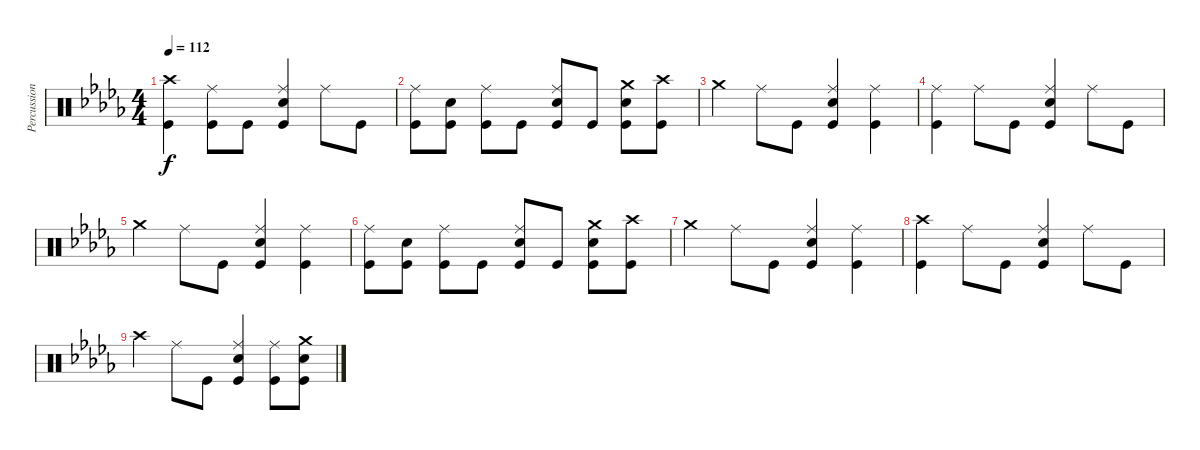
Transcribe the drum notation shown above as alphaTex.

\track ("Percussion" "Percussion") {instrument percussion}
\staff {score}
\articulation defaults
\ts (4 4)
\tempo 112
\clef neutral
\ks bbminor
("Kick (hit)" "Crash high (hit)").4{dy f} ("Kick (hit)" "Ride (middle)").8 "Kick (hit)".8 ("Kick (hit)" "Snare (hit) 2" "Ride (middle)").4 "Ride (middle)".8 "Kick (hit)".8 |
("Kick (hit)" "Ride (middle)").8 ("Kick (hit)" "Snare (hit) 2").8 ("Kick (hit)" "Ride (middle)").8 "Kick (hit)".8 ("Kick (hit)" "Snare (hit) 2" "Ride (middle)").8 "Kick (hit)".8 ("Kick (hit)" "Snare (hit) 2" "Crash medium (hit)").8 ("Kick (hit)" "Crash high (hit)").8 |
"Crash medium (hit)".4 "Ride (middle)".8 "Kick (hit)".8 ("Kick (hit)" "Snare (hit) 2" "Ride (middle)").4 ("Kick (hit)" "Ride (middle)").4 |
("Kick (hit)" "Ride (middle)").4 "Ride (middle)".8 "Kick (hit)".8 ("Kick (hit)" "Snare (hit) 2" "Ride (middle)").4 "Ride (middle)".8 "Kick (hit)".8 |
"Crash medium (hit)".4 "Ride (middle)".8 "Kick (hit)".8 ("Kick (hit)" "Snare (hit) 2" "Ride (middle)").4 ("Kick (hit)" "Ride (middle)").4 |
("Kick (hit)" "Ride (middle)").8 ("Kick (hit)" "Snare (hit) 2").8 ("Kick (hit)" "Ride (middle)").8 "Kick (hit)".8 ("Kick (hit)" "Snare (hit) 2" "Ride (middle)").8 "Kick (hit)".8 ("Kick (hit)" "Snare (hit) 2" "Crash medium (hit)").8 ("Kick (hit)" "Crash high (hit)").8 |
"Crash medium (hit)".4 "Ride (middle)".8 "Kick (hit)".8 ("Kick (hit)" "Snare (hit) 2" "Ride (middle)").4 ("Kick (hit)" "Ride (middle)").4 |
("Kick (hit)" "Crash high (hit)").4 "Ride (middle)".8 "Kick (hit)".8 ("Kick (hit)" "Snare (hit) 2" "Ride (middle)").4 "Ride (middle)".8 "Kick (hit)".8 |
"Crash high (hit)".4 "Ride (middle)".8 "Kick (hit)".8 ("Kick (hit)" "Snare (hit) 2" "Ride (middle)").4 ("Kick (hit)" "Ride (middle)").8 ("Kick (hit)" "Snare (hit) 2" "Crash medium (hit)").8
